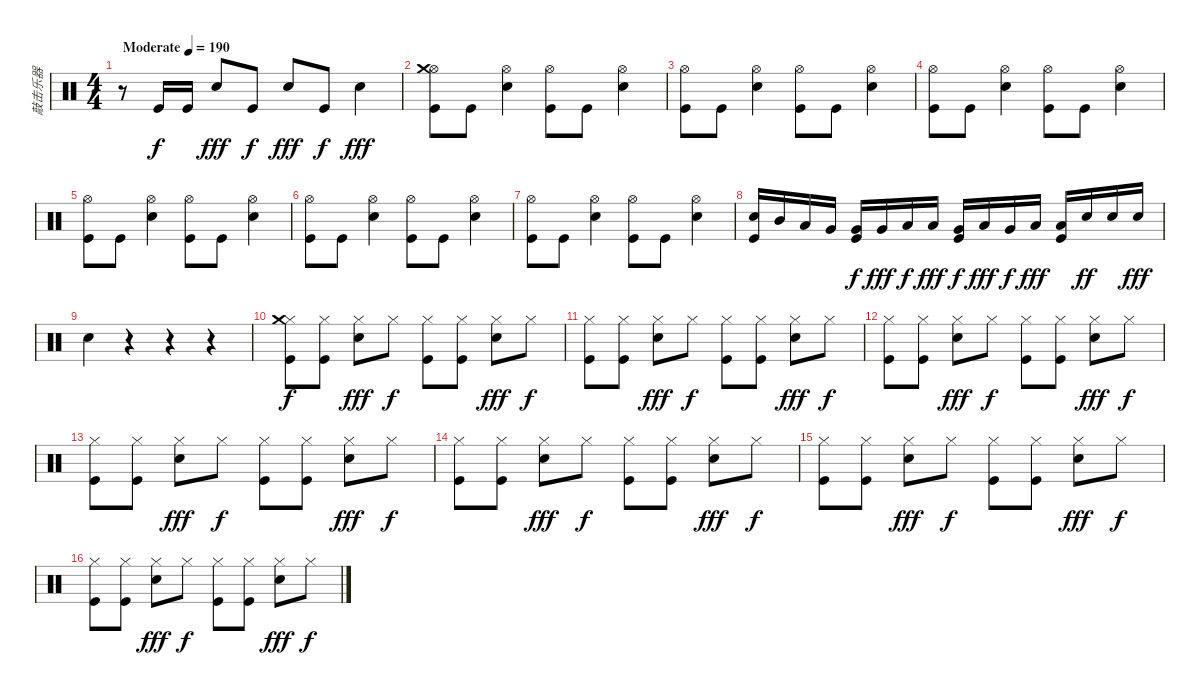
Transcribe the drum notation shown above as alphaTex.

\track ("敲击乐器" "敲击乐器") {instrument percussion}
\staff {score}
\articulation defaults
\ts (4 4)
\tempo (190 "Moderate")
\clef neutral
\ks c
r.8{dy f} "Kick (hit)".16 "Kick (hit)".16 "Electric Snare (hit)".8{dy fff} "Kick (hit)".8{dy f} "Electric Snare (hit)".8{dy fff} "Kick (hit)".8{dy f} "Electric Snare (hit)".4{dy fff} |
("Hi-Hat (open)" "Crash medium (hit)" "Kick (hit)").8 "Kick (hit)".8 ("Electric Snare (hit)" "Hi-Hat (open)").4 ("Hi-Hat (open)" "Kick (hit)").8 "Kick (hit)".8 ("Hi-Hat (open)" "Electric Snare (hit)").4 |
("Hi-Hat (open)" "Kick (hit)").8 "Kick (hit)".8 ("Electric Snare (hit)" "Hi-Hat (open)").4 ("Hi-Hat (open)" "Kick (hit)").8 "Kick (hit)".8 ("Electric Snare (hit)" "Hi-Hat (open)").4 |
("Hi-Hat (open)" "Kick (hit)").8 "Kick (hit)".8 ("Electric Snare (hit)" "Hi-Hat (open)").4 ("Hi-Hat (open)" "Kick (hit)").8 "Kick (hit)".8 ("Electric Snare (hit)" "Hi-Hat (open)").4 |
("Hi-Hat (open)" "Kick (hit)").8 "Kick (hit)".8 ("Electric Snare (hit)" "Hi-Hat (open)").4 ("Hi-Hat (open)" "Kick (hit)").8 "Kick (hit)".8 ("Electric Snare (hit)" "Hi-Hat (open)").4 |
("Hi-Hat (open)" "Kick (hit)").8 "Kick (hit)".8 ("Electric Snare (hit)" "Hi-Hat (open)").4 ("Hi-Hat (open)" "Kick (hit)").8 "Kick (hit)".8 ("Electric Snare (hit)" "Hi-Hat (open)").4 |
("Hi-Hat (open)" "Kick (hit)").8 "Kick (hit)".8 ("Electric Snare (hit)" "Hi-Hat (open)").4 ("Hi-Hat (open)" "Kick (hit)").8 "Kick (hit)".8 ("Electric Snare (hit)" "Hi-Hat (open)").4 |
("Electric Snare (hit)" "Kick (hit)").16 "Mid Tom (hit)".16 "Low Tom (hit)".16 "Very Low Tom (hit)".16 ("Very Low Tom (hit)" "Kick (hit)").16{dy f} "Very Low Tom (hit)".16{dy fff} "Low Floor Tom (hit)".16{dy f} "Low Floor Tom (hit)".16{dy fff} ("Very Low Tom (hit)" "Kick (hit)").16{dy f} "Low Floor Tom (hit)".16{dy fff} "Very Low Tom (hit)".16{dy f} "Low Floor Tom (hit)".16{dy fff} ("Low Floor Tom (hit)" "Kick (hit)").16 "Electric Snare (hit)".16{dy ff} "Electric Snare (hit)".16 "Electric Snare (hit)".16{dy fff} |
"Electric Snare (hit)".4 r.4 r.4 r.4 |
("Hi-Hat (closed)" "Crash medium (hit)" "Kick (hit)").8{dy f} ("Hi-Hat (closed)" "Kick (hit)").8 ("Hi-Hat (closed)" "Electric Snare (hit)").8{dy fff} "Hi-Hat (closed)".8{dy f} ("Hi-Hat (closed)" "Kick (hit)").8 ("Hi-Hat (closed)" "Kick (hit)").8 ("Hi-Hat (closed)" "Electric Snare (hit)").8{dy fff} "Hi-Hat (closed)".8{dy f} |
("Hi-Hat (closed)" "Kick (hit)").8 ("Hi-Hat (closed)" "Kick (hit)").8 ("Hi-Hat (closed)" "Electric Snare (hit)").8{dy fff} "Hi-Hat (closed)".8{dy f} ("Hi-Hat (closed)" "Kick (hit)").8 ("Hi-Hat (closed)" "Kick (hit)").8 ("Hi-Hat (closed)" "Electric Snare (hit)").8{dy fff} "Hi-Hat (closed)".8{dy f} |
("Hi-Hat (closed)" "Kick (hit)").8 ("Hi-Hat (closed)" "Kick (hit)").8 ("Hi-Hat (closed)" "Electric Snare (hit)").8{dy fff} "Hi-Hat (closed)".8{dy f} ("Hi-Hat (closed)" "Kick (hit)").8 ("Hi-Hat (closed)" "Kick (hit)").8 ("Hi-Hat (closed)" "Electric Snare (hit)").8{dy fff} "Hi-Hat (closed)".8{dy f} |
("Hi-Hat (closed)" "Kick (hit)").8 ("Hi-Hat (closed)" "Kick (hit)").8 ("Hi-Hat (closed)" "Electric Snare (hit)").8{dy fff} "Hi-Hat (closed)".8{dy f} ("Hi-Hat (closed)" "Kick (hit)").8 ("Hi-Hat (closed)" "Kick (hit)").8 ("Hi-Hat (closed)" "Electric Snare (hit)").8{dy fff} "Hi-Hat (closed)".8{dy f} |
("Hi-Hat (closed)" "Kick (hit)").8 ("Hi-Hat (closed)" "Kick (hit)").8 ("Hi-Hat (closed)" "Electric Snare (hit)").8{dy fff} "Hi-Hat (closed)".8{dy f} ("Hi-Hat (closed)" "Kick (hit)").8 ("Hi-Hat (closed)" "Kick (hit)").8 ("Hi-Hat (closed)" "Electric Snare (hit)").8{dy fff} "Hi-Hat (closed)".8{dy f} |
("Hi-Hat (closed)" "Kick (hit)").8 ("Hi-Hat (closed)" "Kick (hit)").8 ("Hi-Hat (closed)" "Electric Snare (hit)").8{dy fff} "Hi-Hat (closed)".8{dy f} ("Hi-Hat (closed)" "Kick (hit)").8 ("Hi-Hat (closed)" "Kick (hit)").8 ("Hi-Hat (closed)" "Electric Snare (hit)").8{dy fff} "Hi-Hat (closed)".8{dy f} |
("Hi-Hat (closed)" "Kick (hit)").8 ("Hi-Hat (closed)" "Kick (hit)").8 ("Hi-Hat (closed)" "Electric Snare (hit)").8{dy fff} "Hi-Hat (closed)".8{dy f} ("Hi-Hat (closed)" "Kick (hit)").8 ("Hi-Hat (closed)" "Kick (hit)").8 ("Hi-Hat (closed)" "Electric Snare (hit)").8{dy fff} "Hi-Hat (closed)".8{dy f}
